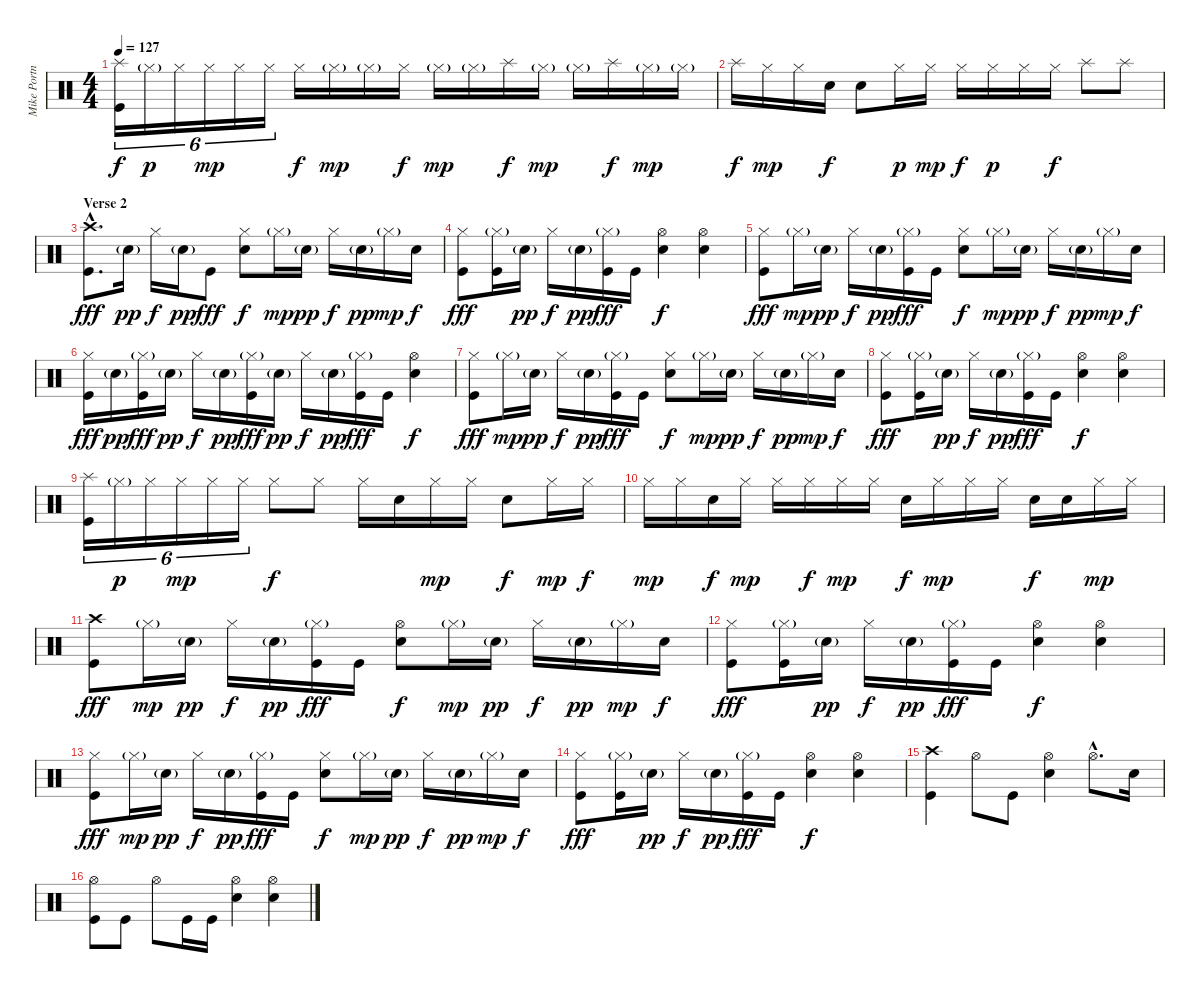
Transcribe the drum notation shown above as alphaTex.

\track ("Mike Portnoy" "Mike Portn") {instrument percussion}
\staff {score}
\articulation defaults
\ts (4 4)
\tempo 127
\clef neutral
\ks c
("Splash (hit)" "Kick (hit)").16{tu (6 4) dy f} "Hi-Hat (closed)"{g}.16{tu (6 4) dy p} "Hi-Hat (closed)".16{tu (6 4)} "Hi-Hat (closed)".16{tu (6 4) dy mp} "Hi-Hat (closed)".16{tu (6 4)} "Hi-Hat (closed)".16{tu (6 4)} "Hi-Hat (closed)".16{dy f} "Hi-Hat (closed)"{g}.16{dy mp} "Hi-Hat (closed)"{g}.16 "Hi-Hat (closed)".16{dy f} "Hi-Hat (closed)"{g}.16{dy mp} "Hi-Hat (closed)"{g}.16 "Splash (hit)".16{dy f} "Hi-Hat (closed)"{g}.16{dy mp} "Hi-Hat (closed)"{g}.16 "Splash (hit)".16{dy f} "Hi-Hat (closed)"{g}.16{dy mp} "Hi-Hat (closed)"{g}.16 |
"Splash (hit)".16{dy f} "Hi-Hat (closed)".16{dy mp} "Hi-Hat (closed)".16 "Electric Snare (hit)".16{dy f} "Electric Snare (hit)".8 "Hi-Hat (closed)".16{dy p} "Hi-Hat (closed)".16{dy mp} "Hi-Hat (closed)".16{dy f} "Hi-Hat (closed)".16{dy p} "Hi-Hat (closed)".16 "Hi-Hat (closed)".16{dy f} "Splash (hit)".8 "Splash (hit)".8 |
\section ("" "Verse 2")
("Crash high (hit)"{hac} "Kick (hit)"{hac}).8{d dy fff} "Electric Snare (hit)"{g}.16{dy pp} "Hi-Hat (closed)".16{dy f} "Electric Snare (hit)"{g}.16{dy pp} "Kick (hit)".8{dy fff} ("Hi-Hat (closed)" "Electric Snare (hit)").8{dy f} "Hi-Hat (closed)"{g}.16{dy mp} "Electric Snare (hit)"{g}.16{dy pp} "Hi-Hat (closed)".16{dy f} "Electric Snare (hit)"{g}.16{dy pp} "Hi-Hat (closed)"{g}.16{dy mp} "Electric Snare (hit)".16{dy f} |
("Hi-Hat (closed)" "Kick (hit)").8{dy fff} ("Hi-Hat (closed)"{g} "Kick (hit)").16 "Electric Snare (hit)"{g}.16{dy pp} "Hi-Hat (closed)".16{dy f} "Electric Snare (hit)"{g}.16{dy pp} ("Hi-Hat (closed)"{g} "Kick (hit)").16{dy fff} "Kick (hit)".16 ("Hi-Hat (open)" "Electric Snare (hit)").4{dy f} ("Hi-Hat (open)" "Electric Snare (hit)").4 |
("Hi-Hat (closed)" "Kick (hit)").8{dy fff} "Hi-Hat (closed)"{g}.16{dy mp} "Electric Snare (hit)"{g}.16{dy pp} "Hi-Hat (closed)".16{dy f} "Electric Snare (hit)"{g}.16{dy pp} ("Hi-Hat (closed)"{g} "Kick (hit)").16{dy fff} "Kick (hit)".16 ("Hi-Hat (closed)" "Electric Snare (hit)").8{dy f} "Hi-Hat (closed)"{g}.16{dy mp} "Electric Snare (hit)"{g}.16{dy pp} "Hi-Hat (closed)".16{dy f} "Electric Snare (hit)"{g}.16{dy pp} "Hi-Hat (closed)"{g}.16{dy mp} "Electric Snare (hit)".16{dy f} |
("Hi-Hat (closed)" "Kick (hit)").16{dy fff} "Electric Snare (hit)"{g}.16{dy pp} ("Hi-Hat (closed)"{g} "Kick (hit)").16{dy fff} "Electric Snare (hit)"{g}.16{dy pp} "Hi-Hat (closed)".16{dy f} "Electric Snare (hit)"{g}.16{dy pp} ("Hi-Hat (closed)"{g} "Kick (hit)").16{dy fff} "Electric Snare (hit)"{g}.16{dy pp} "Hi-Hat (closed)".16{dy f} "Electric Snare (hit)"{g}.16{dy pp} ("Hi-Hat (closed)"{g} "Kick (hit)").16{dy fff} "Kick (hit)".16 ("Hi-Hat (open)" "Electric Snare (hit)").4{dy f} |
("Hi-Hat (closed)" "Kick (hit)").8{dy fff} "Hi-Hat (closed)"{g}.16{dy mp} "Electric Snare (hit)"{g}.16{dy pp} "Hi-Hat (closed)".16{dy f} "Electric Snare (hit)"{g}.16{dy pp} ("Hi-Hat (closed)"{g} "Kick (hit)").16{dy fff} "Kick (hit)".16 ("Hi-Hat (closed)" "Electric Snare (hit)").8{dy f} "Hi-Hat (closed)"{g}.16{dy mp} "Electric Snare (hit)"{g}.16{dy pp} "Hi-Hat (closed)".16{dy f} "Electric Snare (hit)"{g}.16{dy pp} "Hi-Hat (closed)"{g}.16{dy mp} "Electric Snare (hit)".16{dy f} |
("Hi-Hat (closed)" "Kick (hit)").8{dy fff} ("Hi-Hat (closed)"{g} "Kick (hit)").16 "Electric Snare (hit)"{g}.16{dy pp} "Hi-Hat (closed)".16{dy f} "Electric Snare (hit)"{g}.16{dy pp} ("Hi-Hat (closed)"{g} "Kick (hit)").16{dy fff} "Kick (hit)".16 ("Hi-Hat (open)" "Electric Snare (hit)").4{dy f} ("Hi-Hat (open)" "Electric Snare (hit)").4 |
("Splash (hit)" "Kick (hit)").16{tu (6 4)} "Hi-Hat (closed)"{g}.16{tu (6 4) dy p} "Hi-Hat (closed)".16{tu (6 4)} "Hi-Hat (closed)".16{tu (6 4) dy mp} "Hi-Hat (closed)".16{tu (6 4)} "Hi-Hat (closed)".16{tu (6 4)} "Hi-Hat (closed)".8{dy f} "Hi-Hat (closed)".8 "Hi-Hat (closed)".16 "Electric Snare (hit)".16 "Hi-Hat (closed)".16{dy mp} "Hi-Hat (closed)".16 "Electric Snare (hit)".8{dy f} "Hi-Hat (closed)".16{dy mp} "Hi-Hat (closed)".16{dy f} |
"Hi-Hat (closed)".16{dy mp} "Hi-Hat (closed)".16 "Electric Snare (hit)".16{dy f} "Hi-Hat (closed)".16{dy mp} "Hi-Hat (closed)".16 "Hi-Hat (closed)".16{dy f} "Hi-Hat (closed)".16{dy mp} "Hi-Hat (closed)".16 "Electric Snare (hit)".16{dy f} "Hi-Hat (closed)".16{dy mp} "Hi-Hat (closed)".16 "Hi-Hat (closed)".16 "Electric Snare (hit)".16{dy f} "Electric Snare (hit)".16 "Hi-Hat (closed)".16{dy mp} "Hi-Hat (closed)".16 |
("Crash high (hit)" "Kick (hit)").8{dy fff} "Hi-Hat (closed)"{g}.16{dy mp} "Electric Snare (hit)"{g}.16{dy pp} "Hi-Hat (closed)".16{dy f} "Electric Snare (hit)"{g}.16{dy pp} ("Hi-Hat (closed)"{g} "Kick (hit)").16{dy fff} "Kick (hit)".16 ("Hi-Hat (open)" "Electric Snare (hit)").8{dy f} "Hi-Hat (closed)"{g}.16{dy mp} "Electric Snare (hit)"{g}.16{dy pp} "Hi-Hat (closed)".16{dy f} "Electric Snare (hit)"{g}.16{dy pp} "Hi-Hat (closed)"{g}.16{dy mp} "Electric Snare (hit)".16{dy f} |
("Hi-Hat (closed)" "Kick (hit)").8{dy fff} ("Hi-Hat (closed)"{g} "Kick (hit)").16 "Electric Snare (hit)"{g}.16{dy pp} "Hi-Hat (closed)".16{dy f} "Electric Snare (hit)"{g}.16{dy pp} ("Hi-Hat (closed)"{g} "Kick (hit)").16{dy fff} "Kick (hit)".16 ("Hi-Hat (open)" "Electric Snare (hit)").4{dy f} ("Hi-Hat (open)" "Electric Snare (hit)").4 |
("Hi-Hat (closed)" "Kick (hit)").8{dy fff} "Hi-Hat (closed)"{g}.16{dy mp} "Electric Snare (hit)"{g}.16{dy pp} "Hi-Hat (closed)".16{dy f} "Electric Snare (hit)"{g}.16{dy pp} ("Hi-Hat (closed)"{g} "Kick (hit)").16{dy fff} "Kick (hit)".16 ("Hi-Hat (closed)" "Electric Snare (hit)").8{dy f} "Hi-Hat (closed)"{g}.16{dy mp} "Electric Snare (hit)"{g}.16{dy pp} "Hi-Hat (closed)".16{dy f} "Electric Snare (hit)"{g}.16{dy pp} "Hi-Hat (closed)"{g}.16{dy mp} "Electric Snare (hit)".16{dy f} |
("Hi-Hat (closed)" "Kick (hit)").8{dy fff} ("Hi-Hat (closed)"{g} "Kick (hit)").16 "Electric Snare (hit)"{g}.16{dy pp} "Hi-Hat (closed)".16{dy f} "Electric Snare (hit)"{g}.16{dy pp} ("Hi-Hat (closed)"{g} "Kick (hit)").16{dy fff} "Kick (hit)".16 ("Hi-Hat (open)" "Electric Snare (hit)").4{dy f} ("Hi-Hat (open)" "Electric Snare (hit)").4 |
("Crash high (hit)" "Kick (hit)").4 "Hi-Hat (open)".8 "Kick (hit)".8 ("Hi-Hat (open)" "Electric Snare (hit)").4 "Hi-Hat (open)"{hac}.8{d} "Electric Snare (hit)".16 |
("Hi-Hat (open)" "Kick (hit)").8 "Kick (hit)".8 "Hi-Hat (open)".8 "Kick (hit)".16 "Kick (hit)".16 ("Hi-Hat (open)" "Electric Snare (hit)").4 ("Hi-Hat (open)" "Electric Snare (hit)").4
